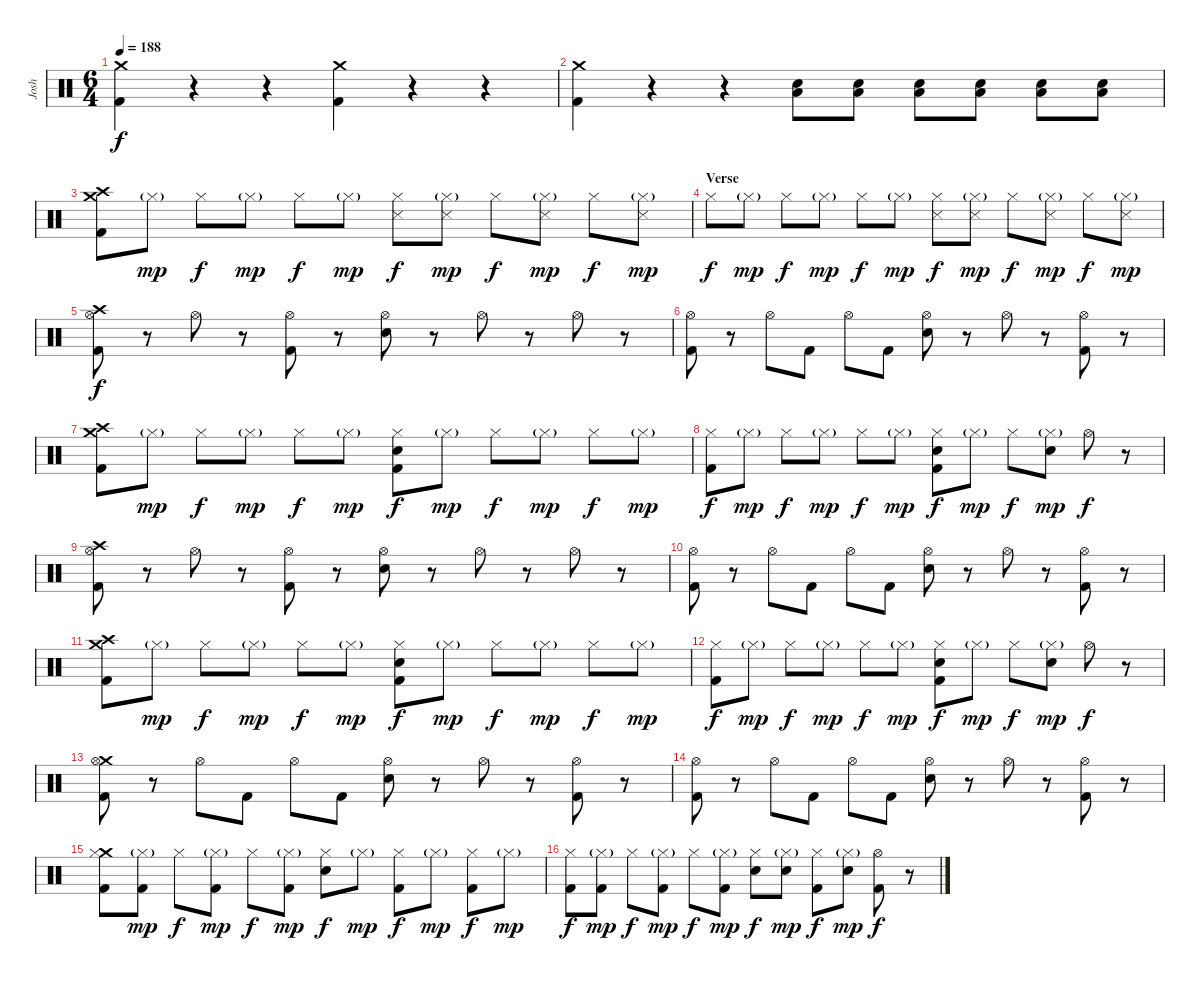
\track ("Josh" "Josh") {instrument percussion}
\staff {score}
\articulation defaults
\ts (6 4)
\tempo 188
\clef neutral
\ks c
("Crash medium (hit)" "Kick (hit) 2").4{dy f} r.4 r.4 ("Crash medium (hit)" "Kick (hit) 2").4 r.4 r.4 |
("Crash medium (hit)" "Kick (hit) 2").4 r.4 r.4 ("Electric Snare (hit)" "Low Floor Tom (hit)").8 ("Electric Snare (hit)" "Low Floor Tom (hit)").8 ("Electric Snare (hit)" "Low Floor Tom (hit)").8 ("Electric Snare (hit)" "Low Floor Tom (hit)").8 ("Electric Snare (hit)" "Low Floor Tom (hit)").8 ("Electric Snare (hit)" "Low Floor Tom (hit)").8 |
("Crash medium (hit)" "Crash high (hit)" "Kick (hit) 2").8 "Hi-Hat (closed)"{g}.8{dy mp} "Hi-Hat (closed)".8{dy f} "Hi-Hat (closed)"{g}.8{dy mp} "Hi-Hat (closed)".8{dy f} "Hi-Hat (closed)"{g}.8{dy mp} ("Hi-Hat (closed)" "Snare (side stick) 3").8{dy f} ("Hi-Hat (closed)"{g} "Snare (side stick) 3").8{dy mp} "Hi-Hat (closed)".8{dy f} ("Hi-Hat (closed)"{g} "Snare (side stick) 3").8{dy mp} "Hi-Hat (closed)".8{dy f} ("Hi-Hat (closed)"{g} "Snare (side stick) 3").8{dy mp} |
\section ("" "Verse")
"Hi-Hat (closed)".8{dy f} "Hi-Hat (closed)"{g}.8{dy mp} "Hi-Hat (closed)".8{dy f} "Hi-Hat (closed)"{g}.8{dy mp} "Hi-Hat (closed)".8{dy f} "Hi-Hat (closed)"{g}.8{dy mp} ("Hi-Hat (closed)" "Snare (side stick) 3").8{dy f} ("Hi-Hat (closed)"{g} "Snare (side stick) 3").8{dy mp} "Hi-Hat (closed)".8{dy f} ("Hi-Hat (closed)"{g} "Snare (side stick) 3").8{dy mp} "Hi-Hat (closed)".8{dy f} ("Hi-Hat (closed)"{g} "Snare (side stick) 3").8{dy mp} |
("Crash high (hit)" "Hi-Hat (open)" "Kick (hit) 2").8{dy f} r.8 "Hi-Hat (open)".8 r.8 ("Hi-Hat (open)" "Kick (hit) 2").8 r.8 ("Hi-Hat (open)" "Electric Snare (hit)").8 r.8 "Hi-Hat (open)".8 r.8 "Hi-Hat (open)".8 r.8 |
("Hi-Hat (open)" "Kick (hit) 2").8 r.8 "Hi-Hat (open)".8 "Kick (hit) 2".8 "Hi-Hat (open)".8 "Kick (hit) 2".8 ("Hi-Hat (open)" "Electric Snare (hit)").8 r.8 "Hi-Hat (open)".8 r.8 ("Hi-Hat (open)" "Kick (hit) 2").8 r.8 |
("Crash medium (hit)" "Crash high (hit)" "Kick (hit) 2").8 "Hi-Hat (closed)"{g}.8{dy mp} "Hi-Hat (closed)".8{dy f} "Hi-Hat (closed)"{g}.8{dy mp} "Hi-Hat (closed)".8{dy f} "Hi-Hat (closed)"{g}.8{dy mp} ("Hi-Hat (closed)" "Electric Snare (hit)" "Kick (hit) 2").8{dy f} "Hi-Hat (closed)"{g}.8{dy mp} "Hi-Hat (closed)".8{dy f} "Hi-Hat (closed)"{g}.8{dy mp} "Hi-Hat (closed)".8{dy f} "Hi-Hat (closed)"{g}.8{dy mp} |
("Hi-Hat (closed)" "Kick (hit) 2").8{dy f} "Hi-Hat (closed)"{g}.8{dy mp} "Hi-Hat (closed)".8{dy f} "Hi-Hat (closed)"{g}.8{dy mp} "Hi-Hat (closed)".8{dy f} "Hi-Hat (closed)"{g}.8{dy mp} ("Hi-Hat (closed)" "Electric Snare (hit)" "Kick (hit) 2").8{dy f} "Hi-Hat (closed)"{g}.8{dy mp} "Hi-Hat (closed)".8{dy f} ("Hi-Hat (closed)"{g} "Electric Snare (hit)").8{dy mp} "Hi-Hat (open)".8{dy f} r.8 |
("Crash high (hit)" "Hi-Hat (open)" "Kick (hit) 2").8 r.8 "Hi-Hat (open)".8 r.8 ("Hi-Hat (open)" "Kick (hit) 2").8 r.8 ("Hi-Hat (open)" "Electric Snare (hit)").8 r.8 "Hi-Hat (open)".8 r.8 "Hi-Hat (open)".8 r.8 |
("Hi-Hat (open)" "Kick (hit) 2").8 r.8 "Hi-Hat (open)".8 "Kick (hit) 2".8 "Hi-Hat (open)".8 "Kick (hit) 2".8 ("Hi-Hat (open)" "Electric Snare (hit)").8 r.8 "Hi-Hat (open)".8 r.8 ("Hi-Hat (open)" "Kick (hit) 2").8 r.8 |
("Crash medium (hit)" "Crash high (hit)" "Kick (hit) 2").8 "Hi-Hat (closed)"{g}.8{dy mp} "Hi-Hat (closed)".8{dy f} "Hi-Hat (closed)"{g}.8{dy mp} "Hi-Hat (closed)".8{dy f} "Hi-Hat (closed)"{g}.8{dy mp} ("Hi-Hat (closed)" "Electric Snare (hit)" "Kick (hit) 2").8{dy f} "Hi-Hat (closed)"{g}.8{dy mp} "Hi-Hat (closed)".8{dy f} "Hi-Hat (closed)"{g}.8{dy mp} "Hi-Hat (closed)".8{dy f} "Hi-Hat (closed)"{g}.8{dy mp} |
("Hi-Hat (closed)" "Kick (hit) 2").8{dy f} "Hi-Hat (closed)"{g}.8{dy mp} "Hi-Hat (closed)".8{dy f} "Hi-Hat (closed)"{g}.8{dy mp} "Hi-Hat (closed)".8{dy f} "Hi-Hat (closed)"{g}.8{dy mp} ("Hi-Hat (closed)" "Electric Snare (hit)" "Kick (hit) 2").8{dy f} "Hi-Hat (closed)"{g}.8{dy mp} "Hi-Hat (closed)".8{dy f} ("Hi-Hat (closed)"{g} "Electric Snare (hit)").8{dy mp} "Hi-Hat (open)".8{dy f} r.8 |
("Crash medium (hit)" "Hi-Hat (open)" "Kick (hit) 2").8 r.8 "Hi-Hat (open)".8 "Kick (hit) 2".8 "Hi-Hat (open)".8 "Kick (hit) 2".8 ("Hi-Hat (open)" "Electric Snare (hit)").8 r.8 "Hi-Hat (open)".8 r.8 ("Hi-Hat (open)" "Kick (hit) 2").8 r.8 |
("Hi-Hat (open)" "Kick (hit) 2").8 r.8 "Hi-Hat (open)".8 "Kick (hit) 2".8 "Hi-Hat (open)".8 "Kick (hit) 2".8 ("Hi-Hat (open)" "Electric Snare (hit)").8 r.8 "Hi-Hat (open)".8 r.8 ("Hi-Hat (open)" "Kick (hit) 2").8 r.8 |
("Crash medium (hit)" "Hi-Hat (closed)" "Kick (hit) 2").8 ("Hi-Hat (closed)"{g} "Kick (hit) 2").8{dy mp} "Hi-Hat (closed)".8{dy f} ("Hi-Hat (closed)"{g} "Kick (hit) 2").8{dy mp} "Hi-Hat (closed)".8{dy f} ("Hi-Hat (closed)"{g} "Kick (hit) 2").8{dy mp} ("Hi-Hat (closed)" "Electric Snare (hit)").8{dy f} "Hi-Hat (closed)"{g}.8{dy mp} ("Hi-Hat (closed)" "Kick (hit) 2").8{dy f} "Hi-Hat (closed)"{g}.8{dy mp} ("Hi-Hat (closed)" "Kick (hit) 2").8{dy f} "Hi-Hat (closed)"{g}.8{dy mp} |
("Hi-Hat (closed)" "Kick (hit) 2").8{dy f} ("Hi-Hat (closed)"{g} "Kick (hit) 2").8{dy mp} "Hi-Hat (closed)".8{dy f} ("Hi-Hat (closed)"{g} "Kick (hit) 2").8{dy mp} "Hi-Hat (closed)".8{dy f} ("Hi-Hat (closed)"{g} "Kick (hit) 2").8{dy mp} ("Hi-Hat (closed)" "Electric Snare (hit)").8{dy f} ("Hi-Hat (closed)"{g} "Electric Snare (hit)").8{dy mp} ("Hi-Hat (closed)" "Kick (hit) 2").8{dy f} ("Hi-Hat (closed)"{g} "Electric Snare (hit)").8{dy mp} ("Hi-Hat (open)" "Kick (hit) 2").8{dy f} r.8
